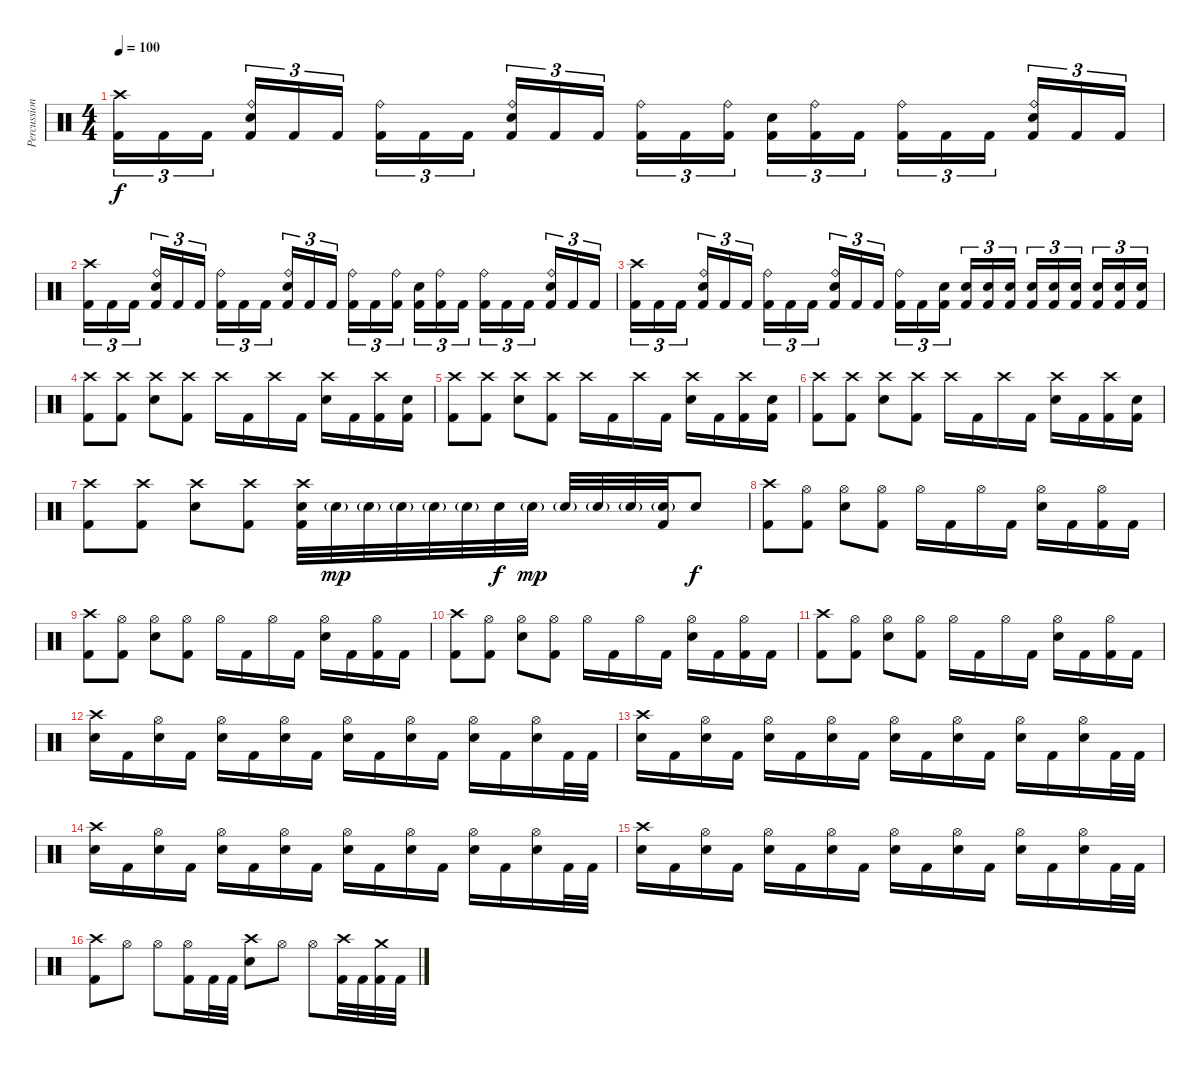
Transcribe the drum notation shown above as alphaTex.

\track ("Percussion" "Percussion") {instrument percussion}
\staff {score}
\articulation defaults
\ts (4 4)
\tempo 100
\clef neutral
\ks c
("Crash high (hit)" "Kick (hit) 2").16{tu (3 2) dy f} "Kick (hit) 2".16{tu (3 2)} "Kick (hit) 2".16{tu (3 2)} ("Ride (bell)" "Electric Snare (hit)" "Kick (hit) 2").16{tu (3 2)} "Kick (hit) 2".16{tu (3 2)} "Kick (hit) 2".16{tu (3 2)} ("Ride (bell)" "Kick (hit) 2").16{tu (3 2)} "Kick (hit) 2".16{tu (3 2)} "Kick (hit) 2".16{tu (3 2)} ("Ride (bell)" "Electric Snare (hit)" "Kick (hit) 2").16{tu (3 2)} "Kick (hit) 2".16{tu (3 2)} "Kick (hit) 2".16{tu (3 2)} ("Ride (bell)" "Kick (hit) 2").16{tu (3 2)} "Kick (hit) 2".16{tu (3 2)} ("Ride (bell)" "Kick (hit) 2").16{tu (3 2)} ("Electric Snare (hit)" "Kick (hit) 2").16{tu (3 2)} ("Ride (bell)" "Kick (hit) 2").16{tu (3 2)} "Kick (hit) 2".16{tu (3 2)} ("Ride (bell)" "Kick (hit) 2").16{tu (3 2)} "Kick (hit) 2".16{tu (3 2)} "Kick (hit) 2".16{tu (3 2)} ("Ride (bell)" "Electric Snare (hit)" "Kick (hit) 2").16{tu (3 2)} "Kick (hit) 2".16{tu (3 2)} "Kick (hit) 2".16{tu (3 2)} |
("Crash high (hit)" "Kick (hit) 2").16{tu (3 2)} "Kick (hit) 2".16{tu (3 2)} "Kick (hit) 2".16{tu (3 2)} ("Ride (bell)" "Electric Snare (hit)" "Kick (hit) 2").16{tu (3 2)} "Kick (hit) 2".16{tu (3 2)} "Kick (hit) 2".16{tu (3 2)} ("Ride (bell)" "Kick (hit) 2").16{tu (3 2)} "Kick (hit) 2".16{tu (3 2)} "Kick (hit) 2".16{tu (3 2)} ("Ride (bell)" "Electric Snare (hit)" "Kick (hit) 2").16{tu (3 2)} "Kick (hit) 2".16{tu (3 2)} "Kick (hit) 2".16{tu (3 2)} ("Ride (bell)" "Kick (hit) 2").16{tu (3 2)} "Kick (hit) 2".16{tu (3 2)} ("Ride (bell)" "Kick (hit) 2").16{tu (3 2)} ("Electric Snare (hit)" "Kick (hit) 2").16{tu (3 2)} ("Ride (bell)" "Kick (hit) 2").16{tu (3 2)} "Kick (hit) 2".16{tu (3 2)} ("Ride (bell)" "Kick (hit) 2").16{tu (3 2)} "Kick (hit) 2".16{tu (3 2)} "Kick (hit) 2".16{tu (3 2)} ("Ride (bell)" "Electric Snare (hit)" "Kick (hit) 2").16{tu (3 2)} "Kick (hit) 2".16{tu (3 2)} "Kick (hit) 2".16{tu (3 2)} |
("Crash high (hit)" "Kick (hit) 2").16{tu (3 2)} "Kick (hit) 2".16{tu (3 2)} "Kick (hit) 2".16{tu (3 2)} ("Ride (bell)" "Electric Snare (hit)" "Kick (hit) 2").16{tu (3 2)} "Kick (hit) 2".16{tu (3 2)} "Kick (hit) 2".16{tu (3 2)} ("Ride (bell)" "Kick (hit) 2").16{tu (3 2)} "Kick (hit) 2".16{tu (3 2)} "Kick (hit) 2".16{tu (3 2)} ("Ride (bell)" "Electric Snare (hit)" "Kick (hit) 2").16{tu (3 2)} "Kick (hit) 2".16{tu (3 2)} "Kick (hit) 2".16{tu (3 2)} ("Ride (bell)" "Kick (hit) 2").16{tu (3 2)} "Kick (hit) 2".16{tu (3 2)} ("Electric Snare (hit)" "Kick (hit) 2").16{tu (3 2)} ("Electric Snare (hit)" "Kick (hit) 2").16{tu (3 2)} ("Electric Snare (hit)" "Kick (hit) 2").16{tu (3 2)} ("Electric Snare (hit)" "Kick (hit) 2").16{tu (3 2)} ("Electric Snare (hit)" "Kick (hit) 2").16{tu (3 2)} ("Electric Snare (hit)" "Kick (hit) 2").16{tu (3 2)} ("Electric Snare (hit)" "Kick (hit) 2").16{tu (3 2)} ("Electric Snare (hit)" "Kick (hit) 2").16{tu (3 2)} ("Electric Snare (hit)" "Kick (hit) 2").16{tu (3 2)} ("Electric Snare (hit)" "Kick (hit) 2").16{tu (3 2)} |
("Crash high (hit)" "Kick (hit) 2").8 ("Crash high (hit)" "Kick (hit) 2").8 ("Crash high (hit)" "Electric Snare (hit)").8 ("Crash high (hit)" "Kick (hit) 2").8 "Crash high (hit)".16 "Kick (hit) 2".16 "Crash high (hit)".16 "Kick (hit) 2".16 ("Crash high (hit)" "Electric Snare (hit)").16 "Kick (hit) 2".16 ("Crash high (hit)" "Kick (hit) 2").16 ("Electric Snare (hit)" "Kick (hit) 2").16 |
("Crash high (hit)" "Kick (hit) 2").8 ("Crash high (hit)" "Kick (hit) 2").8 ("Crash high (hit)" "Electric Snare (hit)").8 ("Crash high (hit)" "Kick (hit) 2").8 "Crash high (hit)".16 "Kick (hit) 2".16 "Crash high (hit)".16 "Kick (hit) 2".16 ("Crash high (hit)" "Electric Snare (hit)").16 "Kick (hit) 2".16 ("Crash high (hit)" "Kick (hit) 2").16 ("Electric Snare (hit)" "Kick (hit) 2").16 |
("Crash high (hit)" "Kick (hit) 2").8 ("Crash high (hit)" "Kick (hit) 2").8 ("Crash high (hit)" "Electric Snare (hit)").8 ("Crash high (hit)" "Kick (hit) 2").8 "Crash high (hit)".16 "Kick (hit) 2".16 "Crash high (hit)".16 "Kick (hit) 2".16 ("Crash high (hit)" "Electric Snare (hit)").16 "Kick (hit) 2".16 ("Crash high (hit)" "Kick (hit) 2").16 ("Electric Snare (hit)" "Kick (hit) 2").16 |
("Crash high (hit)" "Kick (hit) 2").8 ("Crash high (hit)" "Kick (hit) 2").8 ("Crash high (hit)" "Electric Snare (hit)").8 ("Crash high (hit)" "Kick (hit) 2").8 ("Crash high (hit)" "Electric Snare (hit)" "Kick (hit) 2").32 "Electric Snare (hit)"{g}.32{dy mp} "Electric Snare (hit)"{g}.32 "Electric Snare (hit)"{g}.32 "Electric Snare (hit)"{g}.32 "Electric Snare (hit)"{g}.32 "Electric Snare (hit)".32{dy f} "Electric Snare (hit)"{g}.32{dy mp} "Electric Snare (hit)"{g}.32 "Electric Snare (hit)"{g}.32 "Electric Snare (hit)"{g}.32 ("Electric Snare (hit)"{g} "Kick (hit) 2").32 "Electric Snare (hit)".8{dy f} |
("Crash high (hit)" "Kick (hit) 2").8 ("Hi-Hat (open)" "Kick (hit) 2").8 ("Hi-Hat (open)" "Electric Snare (hit)").8 ("Hi-Hat (open)" "Kick (hit) 2").8 "Hi-Hat (open)".16 "Kick (hit) 2".16 "Hi-Hat (open)".16 "Kick (hit) 2".16 ("Hi-Hat (open)" "Electric Snare (hit)").16 "Kick (hit) 2".16 ("Hi-Hat (open)" "Kick (hit) 2").16 "Kick (hit) 2".16 |
("Crash high (hit)" "Kick (hit) 2").8 ("Hi-Hat (open)" "Kick (hit) 2").8 ("Hi-Hat (open)" "Electric Snare (hit)").8 ("Hi-Hat (open)" "Kick (hit) 2").8 "Hi-Hat (open)".16 "Kick (hit) 2".16 "Hi-Hat (open)".16 "Kick (hit) 2".16 ("Hi-Hat (open)" "Electric Snare (hit)").16 "Kick (hit) 2".16 ("Hi-Hat (open)" "Kick (hit) 2").16 "Kick (hit) 2".16 |
("Crash high (hit)" "Kick (hit) 2").8 ("Hi-Hat (open)" "Kick (hit) 2").8 ("Hi-Hat (open)" "Electric Snare (hit)").8 ("Hi-Hat (open)" "Kick (hit) 2").8 "Hi-Hat (open)".16 "Kick (hit) 2".16 "Hi-Hat (open)".16 "Kick (hit) 2".16 ("Hi-Hat (open)" "Electric Snare (hit)").16 "Kick (hit) 2".16 ("Hi-Hat (open)" "Kick (hit) 2").16 "Kick (hit) 2".16 |
("Crash high (hit)" "Kick (hit) 2").8 ("Hi-Hat (open)" "Kick (hit) 2").8 ("Hi-Hat (open)" "Electric Snare (hit)").8 ("Hi-Hat (open)" "Kick (hit) 2").8 "Hi-Hat (open)".16 "Kick (hit) 2".16 "Hi-Hat (open)".16 "Kick (hit) 2".16 ("Hi-Hat (open)" "Electric Snare (hit)").16 "Kick (hit) 2".16 ("Hi-Hat (open)" "Kick (hit) 2").16 "Kick (hit) 2".16 |
("Crash high (hit)" "Electric Snare (hit)").16 "Kick (hit) 2".16 ("Hi-Hat (open)" "Electric Snare (hit)").16 "Kick (hit) 2".16 ("Hi-Hat (open)" "Electric Snare (hit)").16 "Kick (hit) 2".16 ("Hi-Hat (open)" "Electric Snare (hit)").16 "Kick (hit) 2".16 ("Hi-Hat (open)" "Electric Snare (hit)").16 "Kick (hit) 2".16 ("Hi-Hat (open)" "Electric Snare (hit)").16 "Kick (hit) 2".16 ("Hi-Hat (open)" "Electric Snare (hit)").16 "Kick (hit) 2".16 ("Hi-Hat (open)" "Electric Snare (hit)").16 "Kick (hit) 2".32 "Kick (hit) 2".32 |
("Crash high (hit)" "Electric Snare (hit)").16 "Kick (hit) 2".16 ("Hi-Hat (open)" "Electric Snare (hit)").16 "Kick (hit) 2".16 ("Hi-Hat (open)" "Electric Snare (hit)").16 "Kick (hit) 2".16 ("Hi-Hat (open)" "Electric Snare (hit)").16 "Kick (hit) 2".16 ("Hi-Hat (open)" "Electric Snare (hit)").16 "Kick (hit) 2".16 ("Hi-Hat (open)" "Electric Snare (hit)").16 "Kick (hit) 2".16 ("Hi-Hat (open)" "Electric Snare (hit)").16 "Kick (hit) 2".16 ("Hi-Hat (open)" "Electric Snare (hit)").16 "Kick (hit) 2".32 "Kick (hit) 2".32 |
("Crash high (hit)" "Electric Snare (hit)").16 "Kick (hit) 2".16 ("Hi-Hat (open)" "Electric Snare (hit)").16 "Kick (hit) 2".16 ("Hi-Hat (open)" "Electric Snare (hit)").16 "Kick (hit) 2".16 ("Hi-Hat (open)" "Electric Snare (hit)").16 "Kick (hit) 2".16 ("Hi-Hat (open)" "Electric Snare (hit)").16 "Kick (hit) 2".16 ("Hi-Hat (open)" "Electric Snare (hit)").16 "Kick (hit) 2".16 ("Hi-Hat (open)" "Electric Snare (hit)").16 "Kick (hit) 2".16 ("Hi-Hat (open)" "Electric Snare (hit)").16 "Kick (hit) 2".32 "Kick (hit) 2".32 |
("Crash high (hit)" "Electric Snare (hit)").16 "Kick (hit) 2".16 ("Hi-Hat (open)" "Electric Snare (hit)").16 "Kick (hit) 2".16 ("Hi-Hat (open)" "Electric Snare (hit)").16 "Kick (hit) 2".16 ("Hi-Hat (open)" "Electric Snare (hit)").16 "Kick (hit) 2".16 ("Hi-Hat (open)" "Electric Snare (hit)").16 "Kick (hit) 2".16 ("Hi-Hat (open)" "Electric Snare (hit)").16 "Kick (hit) 2".16 ("Hi-Hat (open)" "Electric Snare (hit)").16 "Kick (hit) 2".16 ("Hi-Hat (open)" "Electric Snare (hit)").16 "Kick (hit) 2".32 "Kick (hit) 2".32 |
("Crash high (hit)" "Kick (hit) 2").8 "Hi-Hat (open)".8 "Hi-Hat (open)".8 ("Hi-Hat (open)" "Kick (hit) 2").16 "Kick (hit) 2".32 "Kick (hit) 2".32 ("Crash high (hit)" "Electric Snare (hit)").8 "Hi-Hat (open)".8 "Hi-Hat (open)".8 ("Crash high (hit)" "Kick (hit) 2").32 "Kick (hit) 2".32 ("Crash medium (hit)" "Kick (hit) 2").32 "Kick (hit) 2".32
